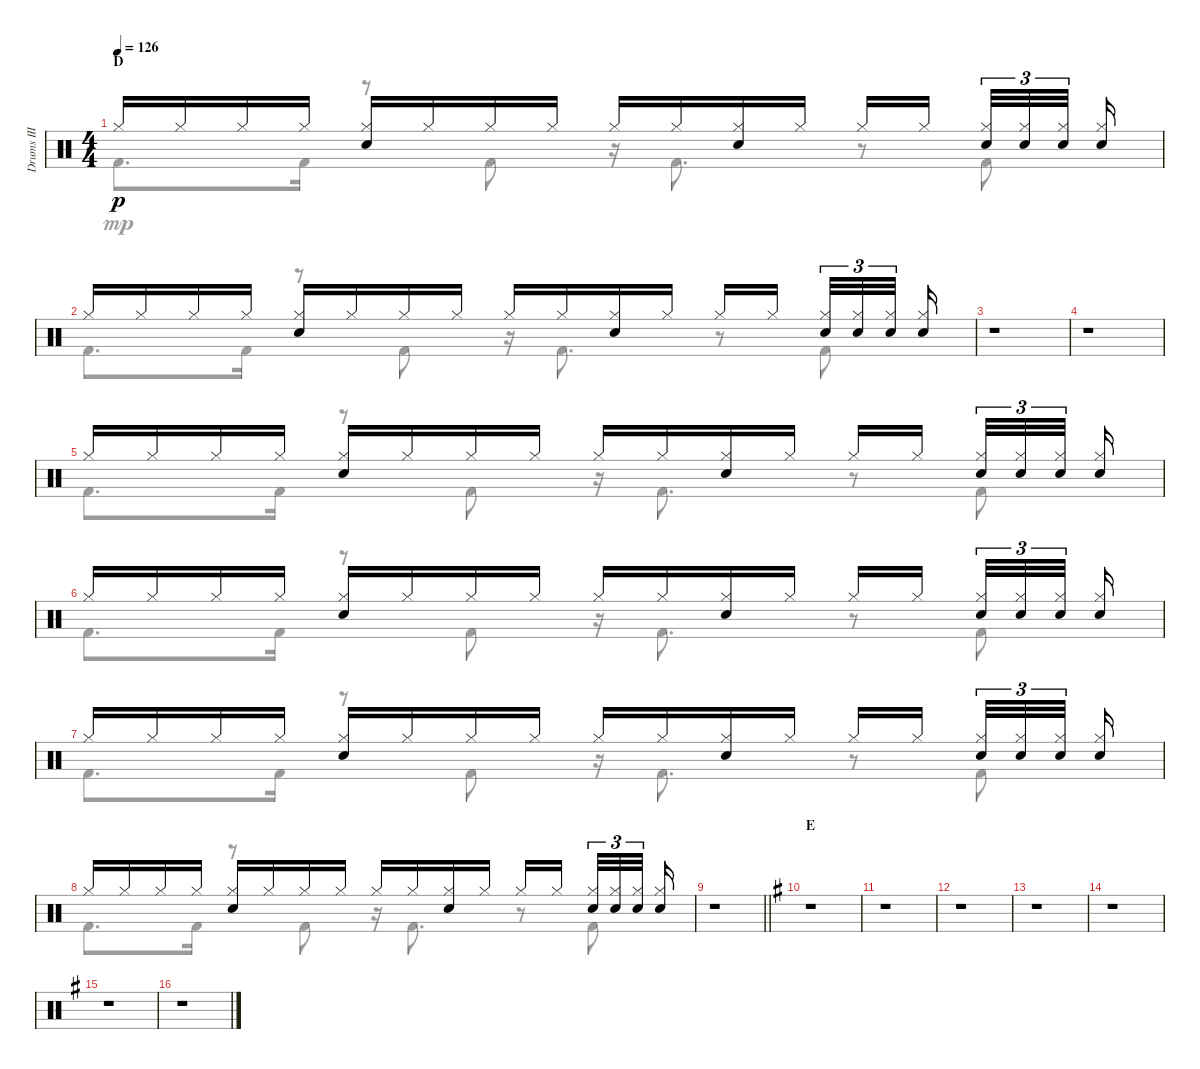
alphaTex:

\track ("Drums III" "Drums III") {instrument percussion}
\staff {score}
\articulation defaults
\voice
\ts (4 4)
\section ("" "D")
\tempo 126
\clef neutral
\ks c "Hi-Hat (closed)".16{dy p} "Hi-Hat (closed)".16 "Hi-Hat (closed)".16 "Hi-Hat (closed)".16
("Hi-Hat (closed)" "Electric Snare (hit)").16 "Hi-Hat (closed)".16 "Hi-Hat (closed)".16 "Hi-Hat (closed)".16 "Hi-Hat (closed)".16 "Hi-Hat (closed)".16 ("Hi-Hat (closed)" "Electric Snare (hit)").16 "Hi-Hat (closed)".16 "Hi-Hat (closed)".16 "Hi-Hat (closed)".16{beam splitsecondary} ("Hi-Hat (closed)" "Electric Snare (hit)").32{tu (3 2)} ("Hi-Hat (closed)" "Electric Snare (hit)").32{tu (3 2)} ("Hi-Hat (closed)" "Electric Snare (hit)").32{tu (3 2) beam splitsecondary} ("Hi-Hat (closed)" "Electric Snare (hit)").16 |
"Hi-Hat (closed)".16 "Hi-Hat (closed)".16 "Hi-Hat (closed)".16 "Hi-Hat (closed)".16 ("Hi-Hat (closed)" "Electric Snare (hit)").16 "Hi-Hat (closed)".16 "Hi-Hat (closed)".16 "Hi-Hat (closed)".16 "Hi-Hat (closed)".16 "Hi-Hat (closed)".16 ("Hi-Hat (closed)" "Electric Snare (hit)").16 "Hi-Hat (closed)".16 "Hi-Hat (closed)".16 "Hi-Hat (closed)".16{beam splitsecondary} ("Hi-Hat (closed)" "Electric Snare (hit)").32{tu (3 2)} ("Hi-Hat (closed)" "Electric Snare (hit)").32{tu (3 2)} ("Hi-Hat (closed)" "Electric Snare (hit)").32{tu (3 2) beam splitsecondary} ("Hi-Hat (closed)" "Electric Snare (hit)").16 |
r.1 |
r.1 |
"Hi-Hat (closed)".16 "Hi-Hat (closed)".16 "Hi-Hat (closed)".16 "Hi-Hat (closed)".16 ("Hi-Hat (closed)" "Electric Snare (hit)").16 "Hi-Hat (closed)".16 "Hi-Hat (closed)".16 "Hi-Hat (closed)".16 "Hi-Hat (closed)".16 "Hi-Hat (closed)".16 ("Hi-Hat (closed)" "Electric Snare (hit)").16 "Hi-Hat (closed)".16 "Hi-Hat (closed)".16 "Hi-Hat (closed)".16{beam splitsecondary} ("Hi-Hat (closed)" "Electric Snare (hit)").32{tu (3 2)} ("Hi-Hat (closed)" "Electric Snare (hit)").32{tu (3 2)} ("Hi-Hat (closed)" "Electric Snare (hit)").32{tu (3 2) beam splitsecondary} ("Hi-Hat (closed)" "Electric Snare (hit)").16 |
"Hi-Hat (closed)".16 "Hi-Hat (closed)".16 "Hi-Hat (closed)".16 "Hi-Hat (closed)".16 ("Hi-Hat (closed)" "Electric Snare (hit)").16 "Hi-Hat (closed)".16 "Hi-Hat (closed)".16 "Hi-Hat (closed)".16 "Hi-Hat (closed)".16 "Hi-Hat (closed)".16 ("Hi-Hat (closed)" "Electric Snare (hit)").16 "Hi-Hat (closed)".16 "Hi-Hat (closed)".16 "Hi-Hat (closed)".16{beam splitsecondary} ("Hi-Hat (closed)" "Electric Snare (hit)").32{tu (3 2)} ("Hi-Hat (closed)" "Electric Snare (hit)").32{tu (3 2)} ("Hi-Hat (closed)" "Electric Snare (hit)").32{tu (3 2) beam splitsecondary} ("Hi-Hat (closed)" "Electric Snare (hit)").16 |
"Hi-Hat (closed)".16 "Hi-Hat (closed)".16 "Hi-Hat (closed)".16 "Hi-Hat (closed)".16 ("Hi-Hat (closed)" "Electric Snare (hit)").16 "Hi-Hat (closed)".16 "Hi-Hat (closed)".16 "Hi-Hat (closed)".16 "Hi-Hat (closed)".16 "Hi-Hat (closed)".16 ("Hi-Hat (closed)" "Electric Snare (hit)").16 "Hi-Hat (closed)".16 "Hi-Hat (closed)".16 "Hi-Hat (closed)".16{beam splitsecondary} ("Hi-Hat (closed)" "Electric Snare (hit)").32{tu (3 2)} ("Hi-Hat (closed)" "Electric Snare (hit)").32{tu (3 2)} ("Hi-Hat (closed)" "Electric Snare (hit)").32{tu (3 2) beam splitsecondary} ("Hi-Hat (closed)" "Electric Snare (hit)").16 |
"Hi-Hat (closed)".16 "Hi-Hat (closed)".16 "Hi-Hat (closed)".16 "Hi-Hat (closed)".16 ("Hi-Hat (closed)" "Electric Snare (hit)").16 "Hi-Hat (closed)".16 "Hi-Hat (closed)".16 "Hi-Hat (closed)".16 "Hi-Hat (closed)".16 "Hi-Hat (closed)".16 ("Hi-Hat (closed)" "Electric Snare (hit)").16 "Hi-Hat (closed)".16 "Hi-Hat (closed)".16 "Hi-Hat (closed)".16{beam splitsecondary} ("Hi-Hat (closed)" "Electric Snare (hit)").32{tu (3 2)} ("Hi-Hat (closed)" "Electric Snare (hit)").32{tu (3 2)} ("Hi-Hat (closed)" "Electric Snare (hit)").32{tu (3 2) beam splitsecondary} ("Hi-Hat (closed)" "Electric Snare (hit)").16 |
\barLineRight lightlight
r.1 |
\section ("" "E")
\ks g
r.1 |
r.1 |
r.1 |
r.1 |
r.1 |
r.1 |
r.1
\voice
\clef neutral
\ottava regular
\simile none
\ks c "Kick (hit) 2".8{d dy mp} "Kick (hit) 2".16
r.8 "Kick (hit) 2".8 r.16 "Kick (hit) 2".8{d} r.8 "Kick (hit) 2".8 |
"Kick (hit) 2".8{d} "Kick (hit) 2".16 r.8 "Kick (hit) 2".8 r.16 "Kick (hit) 2".8{d} r.8 "Kick (hit) 2".8 |
r.1 |
r.1 |
"Kick (hit) 2".8{d} "Kick (hit) 2".16 r.8 "Kick (hit) 2".8 r.16 "Kick (hit) 2".8{d} r.8 "Kick (hit) 2".8 |
"Kick (hit) 2".8{d} "Kick (hit) 2".16 r.8 "Kick (hit) 2".8 r.16 "Kick (hit) 2".8{d} r.8 "Kick (hit) 2".8 |
"Kick (hit) 2".8{d} "Kick (hit) 2".16 r.8 "Kick (hit) 2".8 r.16 "Kick (hit) 2".8{d} r.8 "Kick (hit) 2".8 |
"Kick (hit) 2".8{d} "Kick (hit) 2".16 r.8 "Kick (hit) 2".8 r.16 "Kick (hit) 2".8{d} r.8 "Kick (hit) 2".8 |
\barLineRight lightlight
r.1 |
\ks g
r.1 |
r.1 |
r.1 |
r.1 |
r.1 |
r.1 |
r.1
